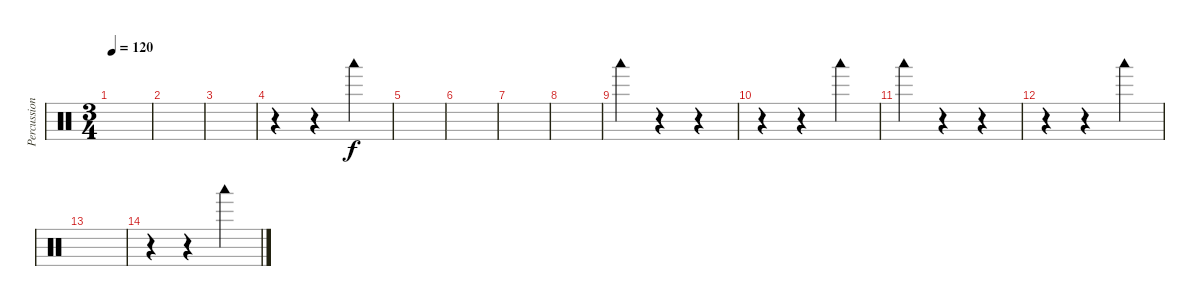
\track ("Percussion" "Percussion") {instrument percussion}
\staff {score}
\articulation defaults
\ts (3 4)
\tempo 120
\clef neutral
\ks c
|
|
|
r.4 r.4 "Woodblock low (hit)".4 |
|
|
|
|
"Woodblock low (hit)".4 r.4 r.4 |
r.4 r.4 "Woodblock low (hit)".4 |
"Woodblock low (hit)".4 r.4 r.4 |
r.4 r.4 "Woodblock low (hit)".4 |
|
r.4 r.4 "Woodblock low (hit)".4
